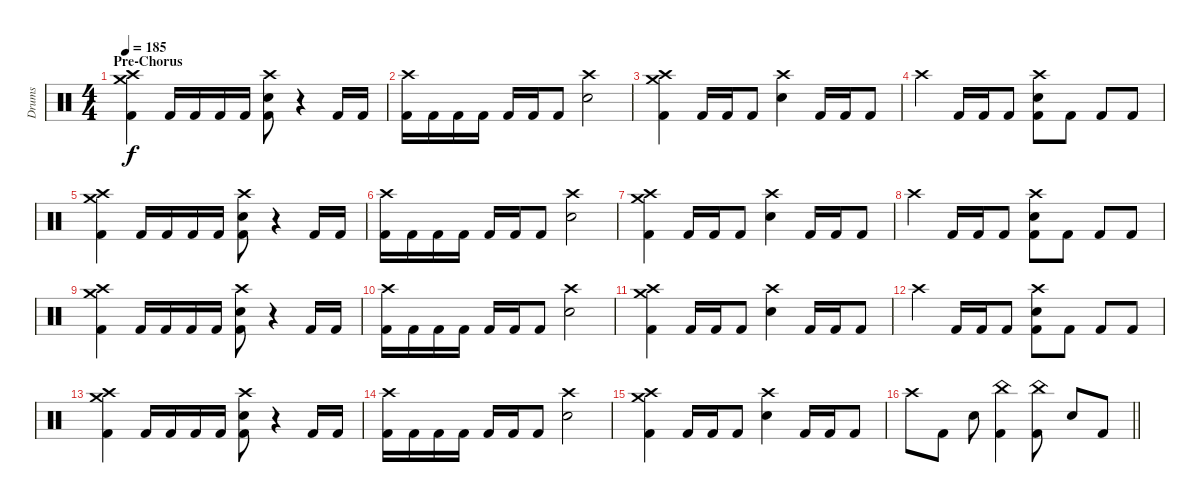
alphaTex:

\track ("Drums" "Drums") {instrument percussion}
\staff {score}
\articulation defaults
\ts (4 4)
\section ("" "Pre-Chorus")
\tempo 185
\clef neutral
\ks c
("Crash medium (hit)" "Crash high (hit)" "Kick (hit) 2").4{dy f} "Kick (hit) 2".16 "Kick (hit) 2".16 "Kick (hit) 2".16 "Kick (hit) 2".16 ("Crash high (hit)" "Electric Snare (hit)" "Kick (hit) 2").8 r.4 "Kick (hit) 2".16 "Kick (hit) 2".16 |
("Crash high (hit)" "Kick (hit) 2").16 "Kick (hit) 2".16 "Kick (hit) 2".16 "Kick (hit) 2".16 "Kick (hit) 2".16 "Kick (hit) 2".16 "Kick (hit) 2".8 ("Crash high (hit)" "Electric Snare (hit)").2 |
("Crash medium (hit)" "Crash high (hit)" "Kick (hit) 2").4 "Kick (hit) 2".16 "Kick (hit) 2".16 "Kick (hit) 2".8 ("Crash high (hit)" "Electric Snare (hit)").4 "Kick (hit) 2".16 "Kick (hit) 2".16 "Kick (hit) 2".8 |
"Crash high (hit)".4 "Kick (hit) 2".16 "Kick (hit) 2".16 "Kick (hit) 2".8 ("Crash high (hit)" "Electric Snare (hit)" "Kick (hit) 2").8 "Kick (hit) 2".8 "Kick (hit) 2".8 "Kick (hit) 2".8 |
("Crash medium (hit)" "Crash high (hit)" "Kick (hit) 2").4 "Kick (hit) 2".16 "Kick (hit) 2".16 "Kick (hit) 2".16 "Kick (hit) 2".16 ("Crash high (hit)" "Electric Snare (hit)" "Kick (hit) 2").8 r.4 "Kick (hit) 2".16 "Kick (hit) 2".16 |
("Crash high (hit)" "Kick (hit) 2").16 "Kick (hit) 2".16 "Kick (hit) 2".16 "Kick (hit) 2".16 "Kick (hit) 2".16 "Kick (hit) 2".16 "Kick (hit) 2".8 ("Crash high (hit)" "Electric Snare (hit)").2 |
("Crash medium (hit)" "Crash high (hit)" "Kick (hit) 2").4 "Kick (hit) 2".16 "Kick (hit) 2".16 "Kick (hit) 2".8 ("Crash high (hit)" "Electric Snare (hit)").4 "Kick (hit) 2".16 "Kick (hit) 2".16 "Kick (hit) 2".8 |
"Crash high (hit)".4 "Kick (hit) 2".16 "Kick (hit) 2".16 "Kick (hit) 2".8 ("Crash high (hit)" "Electric Snare (hit)" "Kick (hit) 2").8 "Kick (hit) 2".8 "Kick (hit) 2".8 "Kick (hit) 2".8 |
("Crash medium (hit)" "Crash high (hit)" "Kick (hit) 2").4 "Kick (hit) 2".16 "Kick (hit) 2".16 "Kick (hit) 2".16 "Kick (hit) 2".16 ("Crash high (hit)" "Electric Snare (hit)" "Kick (hit) 2").8 r.4 "Kick (hit) 2".16 "Kick (hit) 2".16 |
("Crash high (hit)" "Kick (hit) 2").16 "Kick (hit) 2".16 "Kick (hit) 2".16 "Kick (hit) 2".16 "Kick (hit) 2".16 "Kick (hit) 2".16 "Kick (hit) 2".8 ("Crash high (hit)" "Electric Snare (hit)").2 |
("Crash medium (hit)" "Crash high (hit)" "Kick (hit) 2").4 "Kick (hit) 2".16 "Kick (hit) 2".16 "Kick (hit) 2".8 ("Crash high (hit)" "Electric Snare (hit)").4 "Kick (hit) 2".16 "Kick (hit) 2".16 "Kick (hit) 2".8 |
"Crash high (hit)".4 "Kick (hit) 2".16 "Kick (hit) 2".16 "Kick (hit) 2".8 ("Crash high (hit)" "Electric Snare (hit)" "Kick (hit) 2").8 "Kick (hit) 2".8 "Kick (hit) 2".8 "Kick (hit) 2".8 |
("Crash medium (hit)" "Crash high (hit)" "Kick (hit) 2").4 "Kick (hit) 2".16 "Kick (hit) 2".16 "Kick (hit) 2".16 "Kick (hit) 2".16 ("Crash high (hit)" "Electric Snare (hit)" "Kick (hit) 2").8 r.4 "Kick (hit) 2".16 "Kick (hit) 2".16 |
("Crash high (hit)" "Kick (hit) 2").16 "Kick (hit) 2".16 "Kick (hit) 2".16 "Kick (hit) 2".16 "Kick (hit) 2".16 "Kick (hit) 2".16 "Kick (hit) 2".8 ("Crash high (hit)" "Electric Snare (hit)").2 |
("Crash medium (hit)" "Crash high (hit)" "Kick (hit) 2").4 "Kick (hit) 2".16 "Kick (hit) 2".16 "Kick (hit) 2".8 ("Crash high (hit)" "Electric Snare (hit)").4 "Kick (hit) 2".16 "Kick (hit) 2".16 "Kick (hit) 2".8 |
\barLineRight lightlight "Crash high (hit)".8 "Kick (hit) 2".8 "Electric Snare (hit)".8
("China (hit)" "Kick (hit) 2").4 ("China (hit)" "Kick (hit) 2").8 "Electric Snare (hit)".8 "Kick (hit) 2".8
